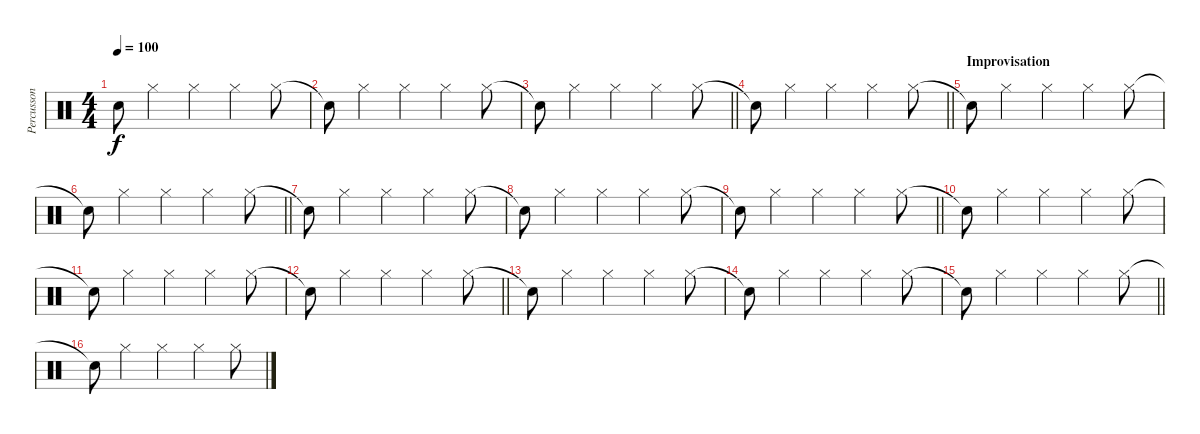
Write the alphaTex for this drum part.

\track ("Percusson" "Percusson") {instrument percussion}
\staff {score}
\articulation defaults
\ts (4 4)
\tempo 100
\clef neutral
\ks c "Snare (hit)"{t}.8{dy f} "Hi-Hat (closed)".4 "Hi-Hat (closed)".4 "Hi-Hat (closed)".4 "Hi-Hat (closed)".8
|
"Snare (hit)"{t}.8 "Hi-Hat (closed)".4 "Hi-Hat (closed)".4 "Hi-Hat (closed)".4 "Hi-Hat (closed)".8 |
\barLineRight lightlight "Snare (hit)"{t}.8 "Hi-Hat (closed)".4 "Hi-Hat (closed)".4 "Hi-Hat (closed)".4 "Hi-Hat (closed)".8
|
\barLineRight lightlight "Snare (hit)"{t}.8 "Hi-Hat (closed)".4 "Hi-Hat (closed)".4 "Hi-Hat (closed)".4 "Hi-Hat (closed)".8
|
\section ("" "Improvisation")
"Snare (hit)"{t}.8 "Hi-Hat (closed)".4 "Hi-Hat (closed)".4 "Hi-Hat (closed)".4 "Hi-Hat (closed)".8 |
\barLineRight lightlight "Snare (hit)"{t}.8 "Hi-Hat (closed)".4 "Hi-Hat (closed)".4 "Hi-Hat (closed)".4 "Hi-Hat (closed)".8
|
"Snare (hit)"{t}.8 "Hi-Hat (closed)".4 "Hi-Hat (closed)".4 "Hi-Hat (closed)".4 "Hi-Hat (closed)".8 |
"Snare (hit)"{t}.8 "Hi-Hat (closed)".4 "Hi-Hat (closed)".4 "Hi-Hat (closed)".4 "Hi-Hat (closed)".8 |
\barLineRight lightlight "Snare (hit)"{t}.8 "Hi-Hat (closed)".4 "Hi-Hat (closed)".4 "Hi-Hat (closed)".4 "Hi-Hat (closed)".8
|
"Snare (hit)"{t}.8 "Hi-Hat (closed)".4 "Hi-Hat (closed)".4 "Hi-Hat (closed)".4 "Hi-Hat (closed)".8 |
"Snare (hit)"{t}.8 "Hi-Hat (closed)".4 "Hi-Hat (closed)".4 "Hi-Hat (closed)".4 "Hi-Hat (closed)".8 |
\barLineRight lightlight "Snare (hit)"{t}.8 "Hi-Hat (closed)".4 "Hi-Hat (closed)".4 "Hi-Hat (closed)".4 "Hi-Hat (closed)".8
|
"Snare (hit)"{t}.8 "Hi-Hat (closed)".4 "Hi-Hat (closed)".4 "Hi-Hat (closed)".4 "Hi-Hat (closed)".8 |
"Snare (hit)"{t}.8 "Hi-Hat (closed)".4 "Hi-Hat (closed)".4 "Hi-Hat (closed)".4 "Hi-Hat (closed)".8 |
\barLineRight lightlight "Snare (hit)"{t}.8 "Hi-Hat (closed)".4 "Hi-Hat (closed)".4 "Hi-Hat (closed)".4 "Hi-Hat (closed)".8
|
"Snare (hit)"{t}.8 "Hi-Hat (closed)".4 "Hi-Hat (closed)".4 "Hi-Hat (closed)".4 "Hi-Hat (closed)".8
